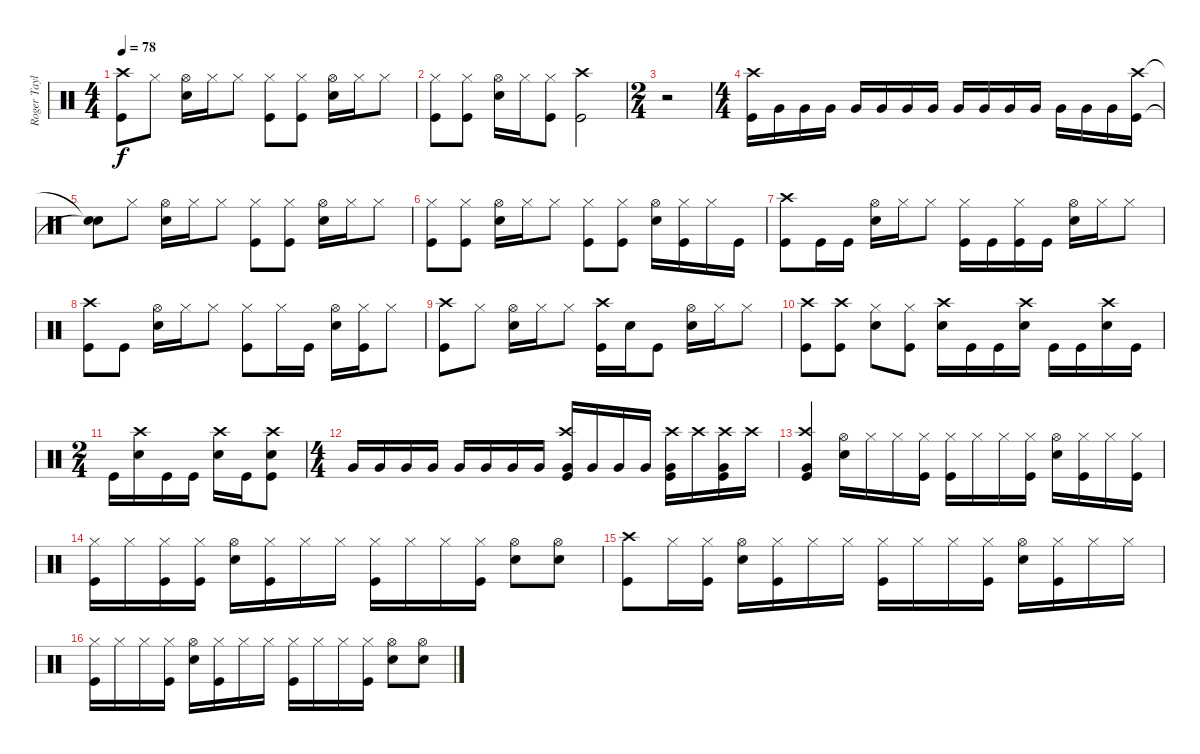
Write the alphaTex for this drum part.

\track ("Roger Taylor - Drums" "Roger Tayl") {instrument percussion}
\staff {score}
\articulation defaults
\ts (4 4)
\tempo 78
\clef neutral
\ks c
("Kick (hit)" "Crash high (hit)").8{dy f} "Hi-Hat (closed)".8 ("Electric Snare (hit)" "Hi-Hat (open)").16 "Hi-Hat (closed)".16 "Hi-Hat (closed)".8 ("Hi-Hat (closed)" "Kick (hit)").8 ("Hi-Hat (closed)" "Kick (hit)").8 ("Electric Snare (hit)" "Hi-Hat (open)").16 "Hi-Hat (closed)".16 "Hi-Hat (closed)".8 |
("Hi-Hat (closed)" "Kick (hit)").8 ("Hi-Hat (closed)" "Kick (hit)").8 ("Electric Snare (hit)" "Hi-Hat (open)").16 "Hi-Hat (closed)".16 ("Hi-Hat (closed)" "Kick (hit)").8 ("Kick (hit)" "Crash high (hit)").2 |
\ts (2 4)
r.2 |
\ts (4 4)
("Kick (hit)" "Crash high (hit)").16 "Very Low Tom (hit)".16 "Very Low Tom (hit)".16 "Very Low Tom (hit)".16 "Very Low Tom (hit)".16 "Very Low Tom (hit)".16 "Very Low Tom (hit)".16 "Very Low Tom (hit)".16 "Very Low Tom (hit)".16 "Very Low Tom (hit)".16 "Very Low Tom (hit)".16 "Very Low Tom (hit)".16 "Very Low Tom (hit)".16 "Very Low Tom (hit)".16 "Very Low Tom (hit)".16 ("Kick (hit)" "Crash high (hit)").16 |
("Snare (hit)"{t} "Snare (hit)"{t}).8 "Hi-Hat (closed)".8 ("Hi-Hat (open)" "Electric Snare (hit)").16 "Hi-Hat (closed)".16 "Hi-Hat (closed)".8 ("Hi-Hat (closed)" "Kick (hit)").8 ("Hi-Hat (closed)" "Kick (hit)").8 ("Electric Snare (hit)" "Hi-Hat (open)").16 "Hi-Hat (closed)".16 "Hi-Hat (closed)".8 |
("Hi-Hat (closed)" "Kick (hit)").8 ("Hi-Hat (closed)" "Kick (hit)").8 ("Electric Snare (hit)" "Hi-Hat (open)").16 "Hi-Hat (closed)".16 "Hi-Hat (closed)".8 ("Hi-Hat (closed)" "Kick (hit)").8 ("Hi-Hat (closed)" "Kick (hit)").8 ("Electric Snare (hit)" "Hi-Hat (open)").16 ("Hi-Hat (closed)" "Kick (hit)").16 "Hi-Hat (closed)".16 "Kick (hit)".16 |
("Crash high (hit)" "Kick (hit)").8 "Kick (hit)".16 "Kick (hit)".16 ("Electric Snare (hit)" "Hi-Hat (open)").16 "Hi-Hat (closed)".16 "Hi-Hat (closed)".8 ("Hi-Hat (closed)" "Kick (hit)").16 "Kick (hit)".16 ("Hi-Hat (closed)" "Kick (hit)").16 "Kick (hit)".16 ("Hi-Hat (open)" "Electric Snare (hit)").16 "Hi-Hat (closed)".16 "Hi-Hat (closed)".8 |
("Kick (hit)" "Crash high (hit)").8 "Kick (hit)".8 ("Hi-Hat (open)" "Electric Snare (hit)").16 "Hi-Hat (closed)".16 "Hi-Hat (closed)".8 ("Hi-Hat (closed)" "Kick (hit)").8 "Hi-Hat (closed)".16 "Kick (hit)".16 ("Electric Snare (hit)" "Hi-Hat (open)").16 ("Hi-Hat (closed)" "Kick (hit)").16 "Hi-Hat (closed)".8 |
("Kick (hit)" "Crash high (hit)").8 "Hi-Hat (closed)".8 ("Electric Snare (hit)" "Hi-Hat (open)").16 "Hi-Hat (closed)".16 "Hi-Hat (closed)".8 ("Kick (hit)" "Crash high (hit)").16 "Electric Snare (hit)".16 "Kick (hit)".8 ("Hi-Hat (open)" "Electric Snare (hit)").16 "Hi-Hat (closed)".16 "Hi-Hat (closed)".8 |
("Kick (hit)" "Crash high (hit)").8 ("Kick (hit)" "Crash high (hit)").8 ("Hi-Hat (closed)" "Electric Snare (hit)").8 ("Hi-Hat (closed)" "Kick (hit)").8 ("Electric Snare (hit)" "Crash high (hit)").16 "Kick (hit)".16 "Kick (hit)".16 ("Electric Snare (hit)" "Crash high (hit)").16 "Kick (hit)".16 "Kick (hit)".16 ("Electric Snare (hit)" "Crash high (hit)").16 "Kick (hit)".16 |
\ts (2 4)
"Kick (hit)".16 ("Electric Snare (hit)" "Crash high (hit)").16 "Kick (hit)".16 "Kick (hit)".16 ("Electric Snare (hit)" "Crash high (hit)").16 "Kick (hit)".16 ("Kick (hit)" "Electric Snare (hit)" "Crash high (hit)").8 |
\ts (4 4)
"Very Low Tom (hit)".16 "Very Low Tom (hit)".16 "Very Low Tom (hit)".16 "Very Low Tom (hit)".16 "Very Low Tom (hit)".16 "Very Low Tom (hit)".16 "Very Low Tom (hit)".16 "Very Low Tom (hit)".16 ("Crash high (hit)" "Very Low Tom (hit)" "Kick (hit)").16 "Very Low Tom (hit)".16 "Very Low Tom (hit)".16 "Very Low Tom (hit)".16 ("Crash high (hit)" "Very Low Tom (hit)" "Kick (hit)").16 "Crash high (hit)".16 ("Crash high (hit)" "Very Low Tom (hit)" "Kick (hit)").16 "Crash high (hit)".16 |
("Crash high (hit)" "Very Low Tom (hit)" "Kick (hit)").4 ("Electric Snare (hit)" "Hi-Hat (open)").16 "Hi-Hat (closed)".16 "Hi-Hat (closed)".16 ("Hi-Hat (closed)" "Kick (hit)").16 ("Hi-Hat (closed)" "Kick (hit)").16 "Hi-Hat (closed)".16 "Hi-Hat (closed)".16 ("Hi-Hat (closed)" "Kick (hit)").16 ("Electric Snare (hit)" "Hi-Hat (open)").16 ("Hi-Hat (closed)" "Kick (hit)").16 "Hi-Hat (closed)".16 ("Hi-Hat (closed)" "Kick (hit)").16 |
("Hi-Hat (closed)" "Kick (hit)").16 "Hi-Hat (closed)".16 ("Hi-Hat (closed)" "Kick (hit)").16 ("Hi-Hat (closed)" "Kick (hit)").16 ("Electric Snare (hit)" "Hi-Hat (open)").16 ("Hi-Hat (closed)" "Kick (hit)").16 "Hi-Hat (closed)".16 "Hi-Hat (closed)".16 ("Hi-Hat (closed)" "Kick (hit)").16 "Hi-Hat (closed)".16 "Hi-Hat (closed)".16 ("Hi-Hat (closed)" "Kick (hit)").16 ("Hi-Hat (open)" "Electric Snare (hit)").8 ("Hi-Hat (open)" "Electric Snare (hit)").8 |
("Kick (hit)" "Crash high (hit)").8 "Hi-Hat (closed)".16 ("Hi-Hat (closed)" "Kick (hit)").16 ("Hi-Hat (open)" "Electric Snare (hit)").16 ("Hi-Hat (closed)" "Kick (hit)").16 "Hi-Hat (closed)".16 "Hi-Hat (closed)".16 ("Hi-Hat (closed)" "Kick (hit)").16 "Hi-Hat (closed)".16 "Hi-Hat (closed)".16 ("Hi-Hat (closed)" "Kick (hit)").16 ("Electric Snare (hit)" "Hi-Hat (open)").16 ("Hi-Hat (closed)" "Kick (hit)").16 "Hi-Hat (closed)".16 "Hi-Hat (closed)".16 |
("Hi-Hat (closed)" "Kick (hit)").16 "Hi-Hat (closed)".16 "Hi-Hat (closed)".16 ("Hi-Hat (closed)" "Kick (hit)").16 ("Electric Snare (hit)" "Hi-Hat (open)").16 ("Hi-Hat (closed)" "Kick (hit)").16 "Hi-Hat (closed)".16 "Hi-Hat (closed)".16 ("Hi-Hat (closed)" "Kick (hit)").16 "Hi-Hat (closed)".16 "Hi-Hat (closed)".16 ("Hi-Hat (closed)" "Kick (hit)").16 ("Electric Snare (hit)" "Hi-Hat (open)").8 ("Electric Snare (hit)" "Hi-Hat (open)").8
